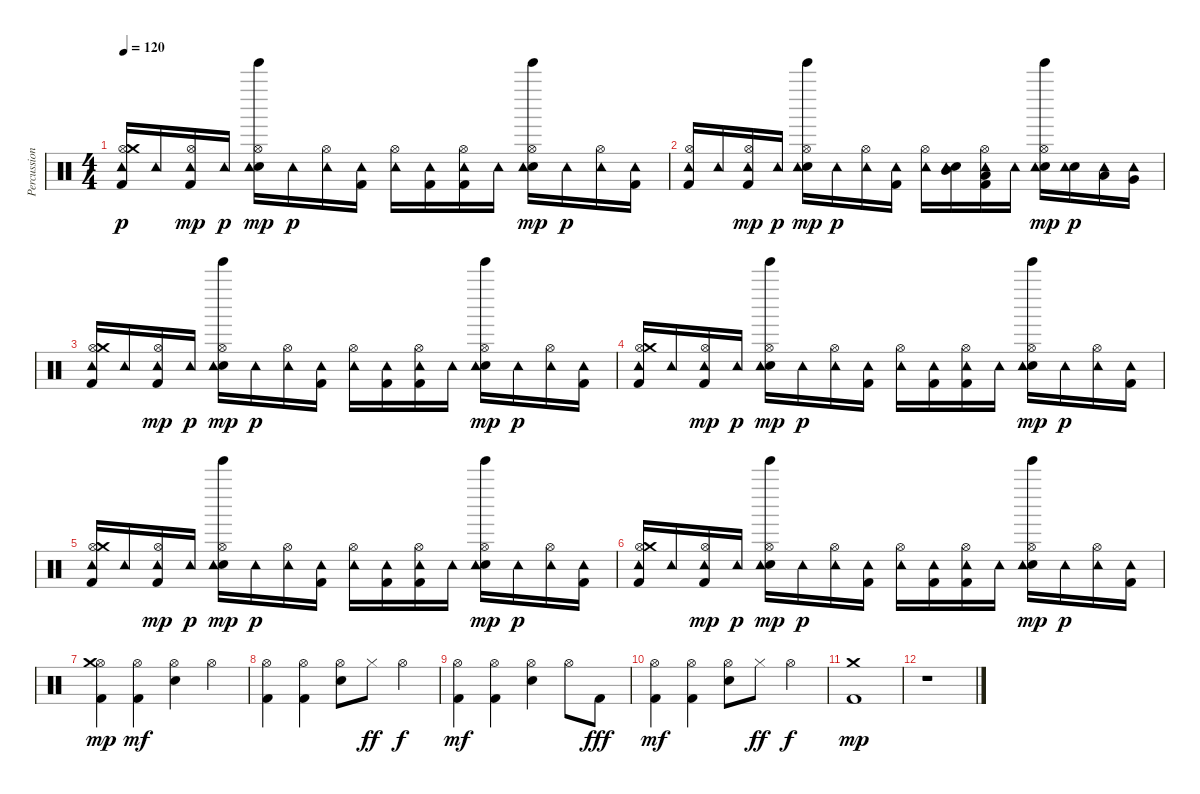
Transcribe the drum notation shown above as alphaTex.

\track ("Percussioni" "Percussion") {instrument percussion}
\staff {score}
\articulation defaults
\ts (4 4)
\tempo 120
\clef neutral
\ks c
("Kick (hit) 2" "Hi-Hat (open)" "Crash medium (hit)" "Tambourine (hit)").16{dy p} "Tambourine (hit)".16 ("Kick (hit) 2" "Hi-Hat (open)" "Tambourine (hit)").16{dy mp} "Tambourine (hit)".16{dy p} ("Electric Snare (hit)" "Hi-Hat (open)" "Tambourine (hit)" "Tinkle Bell (hit)").16{dy mp} "Tambourine (hit)".16{dy p} ("Hi-Hat (open)" "Tambourine (hit)").16 ("Kick (hit) 2" "Tambourine (hit)").16 ("Hi-Hat (open)" "Tambourine (hit)").16 ("Kick (hit) 2" "Tambourine (hit)").16 ("Kick (hit) 2" "Hi-Hat (open)" "Tambourine (hit)").16 "Tambourine (hit)".16 ("Electric Snare (hit)" "Hi-Hat (open)" "Tambourine (hit)" "Tinkle Bell (hit)").16{dy mp} "Tambourine (hit)".16{dy p} ("Hi-Hat (open)" "Tambourine (hit)").16 ("Kick (hit) 2" "Tambourine (hit)").16 |
("Kick (hit) 2" "Hi-Hat (open)" "Tambourine (hit)").16 "Tambourine (hit)".16 ("Kick (hit) 2" "Hi-Hat (open)" "Tambourine (hit)").16{dy mp} "Tambourine (hit)".16{dy p} ("Electric Snare (hit)" "Hi-Hat (open)" "Tambourine (hit)" "Tinkle Bell (hit)").16{dy mp} "Tambourine (hit)".16{dy p} ("Hi-Hat (open)" "Tambourine (hit)").16 ("Kick (hit) 2" "Tambourine (hit)").16 ("Hi-Hat (open)" "Tambourine (hit)").16 ("Electric Snare (hit)" "Mid Tom (hit)" "Tambourine (hit)").16 ("Kick (hit) 2" "Low Tom (hit)" "Hi-Hat (open)" "Tambourine (hit)").16 "Tambourine (hit)".16 ("Electric Snare (hit)" "Hi-Hat (open)" "Tambourine (hit)" "Tinkle Bell (hit)").16{dy mp} ("Electric Snare (hit)" "Tambourine (hit)").16{dy p} ("Low Tom (hit)" "Tambourine (hit)").16 ("Very Low Tom (hit)" "Tambourine (hit)").16 |
("Kick (hit) 2" "Hi-Hat (open)" "Crash medium (hit)" "Tambourine (hit)").16 "Tambourine (hit)".16 ("Kick (hit) 2" "Hi-Hat (open)" "Tambourine (hit)").16{dy mp} "Tambourine (hit)".16{dy p} ("Electric Snare (hit)" "Hi-Hat (open)" "Tambourine (hit)" "Tinkle Bell (hit)").16{dy mp} "Tambourine (hit)".16{dy p} ("Hi-Hat (open)" "Tambourine (hit)").16 ("Kick (hit) 2" "Tambourine (hit)").16 ("Hi-Hat (open)" "Tambourine (hit)").16 ("Kick (hit) 2" "Tambourine (hit)").16 ("Kick (hit) 2" "Hi-Hat (open)" "Tambourine (hit)").16 "Tambourine (hit)".16 ("Electric Snare (hit)" "Hi-Hat (open)" "Tambourine (hit)" "Tinkle Bell (hit)").16{dy mp} "Tambourine (hit)".16{dy p} ("Hi-Hat (open)" "Tambourine (hit)").16 ("Kick (hit) 2" "Tambourine (hit)").16 |
("Kick (hit) 2" "Hi-Hat (open)" "Crash medium (hit)" "Tambourine (hit)").16 "Tambourine (hit)".16 ("Kick (hit) 2" "Hi-Hat (open)" "Tambourine (hit)").16{dy mp} "Tambourine (hit)".16{dy p} ("Electric Snare (hit)" "Hi-Hat (open)" "Tambourine (hit)" "Tinkle Bell (hit)").16{dy mp} "Tambourine (hit)".16{dy p} ("Hi-Hat (open)" "Tambourine (hit)").16 ("Kick (hit) 2" "Tambourine (hit)").16 ("Hi-Hat (open)" "Tambourine (hit)").16 ("Kick (hit) 2" "Tambourine (hit)").16 ("Kick (hit) 2" "Hi-Hat (open)" "Tambourine (hit)").16 "Tambourine (hit)".16 ("Electric Snare (hit)" "Hi-Hat (open)" "Tambourine (hit)" "Tinkle Bell (hit)").16{dy mp} "Tambourine (hit)".16{dy p} ("Hi-Hat (open)" "Tambourine (hit)").16 ("Kick (hit) 2" "Tambourine (hit)").16 |
("Kick (hit) 2" "Hi-Hat (open)" "Crash medium (hit)" "Tambourine (hit)").16 "Tambourine (hit)".16 ("Kick (hit) 2" "Hi-Hat (open)" "Tambourine (hit)").16{dy mp} "Tambourine (hit)".16{dy p} ("Electric Snare (hit)" "Hi-Hat (open)" "Tambourine (hit)" "Tinkle Bell (hit)").16{dy mp} "Tambourine (hit)".16{dy p} ("Hi-Hat (open)" "Tambourine (hit)").16 ("Kick (hit) 2" "Tambourine (hit)").16 ("Hi-Hat (open)" "Tambourine (hit)").16 ("Kick (hit) 2" "Tambourine (hit)").16 ("Kick (hit) 2" "Hi-Hat (open)" "Tambourine (hit)").16 "Tambourine (hit)".16 ("Electric Snare (hit)" "Hi-Hat (open)" "Tambourine (hit)" "Tinkle Bell (hit)").16{dy mp} "Tambourine (hit)".16{dy p} ("Hi-Hat (open)" "Tambourine (hit)").16 ("Kick (hit) 2" "Tambourine (hit)").16 |
("Kick (hit) 2" "Hi-Hat (open)" "Crash medium (hit)" "Tambourine (hit)").16 "Tambourine (hit)".16 ("Kick (hit) 2" "Hi-Hat (open)" "Tambourine (hit)").16{dy mp} "Tambourine (hit)".16{dy p} ("Electric Snare (hit)" "Hi-Hat (open)" "Tambourine (hit)" "Tinkle Bell (hit)").16{dy mp} "Tambourine (hit)".16{dy p} ("Hi-Hat (open)" "Tambourine (hit)").16 ("Kick (hit) 2" "Tambourine (hit)").16 ("Hi-Hat (open)" "Tambourine (hit)").16 ("Kick (hit) 2" "Tambourine (hit)").16 ("Kick (hit) 2" "Hi-Hat (open)" "Tambourine (hit)").16 "Tambourine (hit)".16 ("Electric Snare (hit)" "Hi-Hat (open)" "Tambourine (hit)" "Tinkle Bell (hit)").16{dy mp} "Tambourine (hit)".16{dy p} ("Hi-Hat (open)" "Tambourine (hit)").16 ("Kick (hit) 2" "Tambourine (hit)").16 |
("Kick (hit) 2" "Hi-Hat (open)" "Crash medium (hit)").4{dy mp} ("Kick (hit) 2" "Hi-Hat (open)").4{dy mf} ("Electric Snare (hit)" "Hi-Hat (open)").4 "Hi-Hat (open)".4 |
("Kick (hit) 2" "Hi-Hat (open)").4 ("Kick (hit) 2" "Hi-Hat (open)").4 ("Electric Snare (hit)" "Hi-Hat (open)").8 "Hi-Hat (closed)".8{dy ff} "Hi-Hat (open)".4{dy f} |
("Kick (hit) 2" "Hi-Hat (open)").4{dy mf} ("Kick (hit) 2" "Hi-Hat (open)").4 ("Electric Snare (hit)" "Hi-Hat (open)").4 "Hi-Hat (open)".8 "Kick (hit) 2".8{dy fff} |
("Kick (hit) 2" "Hi-Hat (open)").4{dy mf} ("Kick (hit) 2" "Hi-Hat (open)").4 ("Electric Snare (hit)" "Hi-Hat (open)").8 "Hi-Hat (closed)".8{dy ff} "Hi-Hat (open)".4{dy f} |
("Kick (hit) 2" "Crash medium (hit)").1{dy mp} |
r.1
